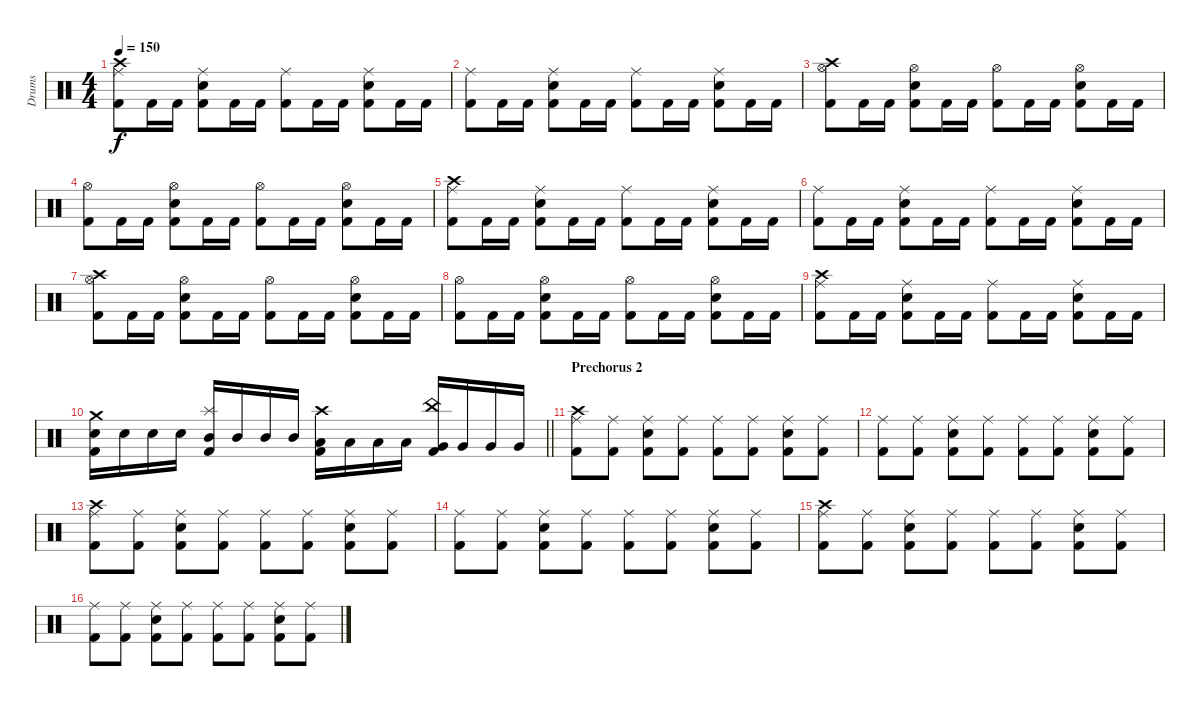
\track ("Drums" "Drums") {instrument percussion}
\staff {score}
\articulation defaults
\ts (4 4)
\tempo 150
\clef neutral
\ks c
("Crash high (hit)" "Ride (middle)" "Kick (hit) 2").8{dy f} "Kick (hit) 2".16 "Kick (hit) 2".16 ("Ride (middle)" "Snare (hit) 2" "Kick (hit) 2").8 "Kick (hit) 2".16 "Kick (hit) 2".16 ("Ride (middle)" "Kick (hit) 2").8 "Kick (hit) 2".16 "Kick (hit) 2".16 ("Ride (middle)" "Snare (hit) 2" "Kick (hit) 2").8 "Kick (hit) 2".16 "Kick (hit) 2".16 |
("Ride (middle)" "Kick (hit) 2").8 "Kick (hit) 2".16 "Kick (hit) 2".16 ("Ride (middle)" "Snare (hit) 2" "Kick (hit) 2").8 "Kick (hit) 2".16 "Kick (hit) 2".16 ("Ride (middle)" "Kick (hit) 2").8 "Kick (hit) 2".16 "Kick (hit) 2".16 ("Ride (middle)" "Snare (hit) 2" "Kick (hit) 2").8 "Kick (hit) 2".16 "Kick (hit) 2".16 |
("Crash high (hit)" "Hi-Hat (open)" "Kick (hit) 2").8 "Kick (hit) 2".16 "Kick (hit) 2".16 ("Hi-Hat (open)" "Snare (hit) 2" "Kick (hit) 2").8 "Kick (hit) 2".16 "Kick (hit) 2".16 ("Hi-Hat (open)" "Kick (hit) 2").8 "Kick (hit) 2".16 "Kick (hit) 2".16 ("Hi-Hat (open)" "Snare (hit) 2" "Kick (hit) 2").8 "Kick (hit) 2".16 "Kick (hit) 2".16 |
("Hi-Hat (open)" "Kick (hit) 2").8 "Kick (hit) 2".16 "Kick (hit) 2".16 ("Hi-Hat (open)" "Snare (hit) 2" "Kick (hit) 2").8 "Kick (hit) 2".16 "Kick (hit) 2".16 ("Hi-Hat (open)" "Kick (hit) 2").8 "Kick (hit) 2".16 "Kick (hit) 2".16 ("Hi-Hat (open)" "Snare (hit) 2" "Kick (hit) 2").8 "Kick (hit) 2".16 "Kick (hit) 2".16 |
("Crash high (hit)" "Ride (middle)" "Kick (hit) 2").8 "Kick (hit) 2".16 "Kick (hit) 2".16 ("Ride (middle)" "Snare (hit) 2" "Kick (hit) 2").8 "Kick (hit) 2".16 "Kick (hit) 2".16 ("Ride (middle)" "Kick (hit) 2").8 "Kick (hit) 2".16 "Kick (hit) 2".16 ("Ride (middle)" "Snare (hit) 2" "Kick (hit) 2").8 "Kick (hit) 2".16 "Kick (hit) 2".16 |
("Ride (middle)" "Kick (hit) 2").8 "Kick (hit) 2".16 "Kick (hit) 2".16 ("Ride (middle)" "Snare (hit) 2" "Kick (hit) 2").8 "Kick (hit) 2".16 "Kick (hit) 2".16 ("Ride (middle)" "Kick (hit) 2").8 "Kick (hit) 2".16 "Kick (hit) 2".16 ("Ride (middle)" "Snare (hit) 2" "Kick (hit) 2").8 "Kick (hit) 2".16 "Kick (hit) 2".16 |
("Crash high (hit)" "Hi-Hat (open)" "Kick (hit) 2").8 "Kick (hit) 2".16 "Kick (hit) 2".16 ("Hi-Hat (open)" "Snare (hit) 2" "Kick (hit) 2").8 "Kick (hit) 2".16 "Kick (hit) 2".16 ("Hi-Hat (open)" "Kick (hit) 2").8 "Kick (hit) 2".16 "Kick (hit) 2".16 ("Hi-Hat (open)" "Snare (hit) 2" "Kick (hit) 2").8 "Kick (hit) 2".16 "Kick (hit) 2".16 |
("Hi-Hat (open)" "Kick (hit) 2").8 "Kick (hit) 2".16 "Kick (hit) 2".16 ("Hi-Hat (open)" "Snare (hit) 2" "Kick (hit) 2").8 "Kick (hit) 2".16 "Kick (hit) 2".16 ("Hi-Hat (open)" "Kick (hit) 2").8 "Kick (hit) 2".16 "Kick (hit) 2".16 ("Hi-Hat (open)" "Snare (hit) 2" "Kick (hit) 2").8 "Kick (hit) 2".16 "Kick (hit) 2".16 |
("Crash high (hit)" "Ride (middle)" "Kick (hit) 2").8 "Kick (hit) 2".16 "Kick (hit) 2".16 ("Ride (middle)" "Snare (hit) 2" "Kick (hit) 2").8 "Kick (hit) 2".16 "Kick (hit) 2".16 ("Ride (middle)" "Kick (hit) 2").8 "Kick (hit) 2".16 "Kick (hit) 2".16 ("Ride (middle)" "Snare (hit) 2" "Kick (hit) 2").8 "Kick (hit) 2".16 "Kick (hit) 2".16 |
\barLineRight lightlight
("Crash medium (hit)" "Snare (hit) 2" "Kick (hit) 2").16 "Snare (hit) 2".16 "Snare (hit) 2".16 "Snare (hit) 2".16 ("Splash (hit)" "Mid Tom (hit)" "Kick (hit) 2").16 "Mid Tom (hit)".16 "Mid Tom (hit)".16 "Mid Tom (hit)".16 ("Crash high (hit)" "Low Tom (hit)" "Kick (hit) 2").16 "Low Tom (hit)".16 "Low Tom (hit)".16 "Low Tom (hit)".16 ("China (hit)" "Very Low Tom (hit)" "Kick (hit) 2").16 "Very Low Tom (hit)".16 "Very Low Tom (hit)".16 "Very Low Tom (hit)".16 |
\section ("" "Prechorus 2")
("Crash high (hit)" "Ride (middle)" "Kick (hit) 2").8 ("Ride (middle)" "Kick (hit) 2").8 ("Ride (middle)" "Snare (hit) 2" "Kick (hit) 2").8 ("Ride (middle)" "Kick (hit) 2").8 ("Ride (middle)" "Kick (hit) 2").8 ("Ride (middle)" "Kick (hit) 2").8 ("Ride (middle)" "Snare (hit) 2" "Kick (hit) 2").8 ("Ride (middle)" "Kick (hit) 2").8 |
("Ride (middle)" "Kick (hit) 2").8 ("Ride (middle)" "Kick (hit) 2").8 ("Ride (middle)" "Snare (hit) 2" "Kick (hit) 2").8 ("Ride (middle)" "Kick (hit) 2").8 ("Ride (middle)" "Kick (hit) 2").8 ("Ride (middle)" "Kick (hit) 2").8 ("Ride (middle)" "Snare (hit) 2" "Kick (hit) 2").8 ("Ride (middle)" "Kick (hit) 2").8 |
("Crash high (hit)" "Ride (middle)" "Kick (hit) 2").8 ("Ride (middle)" "Kick (hit) 2").8 ("Ride (middle)" "Snare (hit) 2" "Kick (hit) 2").8 ("Ride (middle)" "Kick (hit) 2").8 ("Ride (middle)" "Kick (hit) 2").8 ("Ride (middle)" "Kick (hit) 2").8 ("Ride (middle)" "Snare (hit) 2" "Kick (hit) 2").8 ("Ride (middle)" "Kick (hit) 2").8 |
("Ride (middle)" "Kick (hit) 2").8 ("Ride (middle)" "Kick (hit) 2").8 ("Ride (middle)" "Snare (hit) 2" "Kick (hit) 2").8 ("Ride (middle)" "Kick (hit) 2").8 ("Ride (middle)" "Kick (hit) 2").8 ("Ride (middle)" "Kick (hit) 2").8 ("Ride (middle)" "Snare (hit) 2" "Kick (hit) 2").8 ("Ride (middle)" "Kick (hit) 2").8 |
("Crash high (hit)" "Ride (middle)" "Kick (hit) 2").8 ("Ride (middle)" "Kick (hit) 2").8 ("Ride (middle)" "Snare (hit) 2" "Kick (hit) 2").8 ("Ride (middle)" "Kick (hit) 2").8 ("Ride (middle)" "Kick (hit) 2").8 ("Ride (middle)" "Kick (hit) 2").8 ("Ride (middle)" "Snare (hit) 2" "Kick (hit) 2").8 ("Ride (middle)" "Kick (hit) 2").8 |
("Ride (middle)" "Kick (hit) 2").8 ("Ride (middle)" "Kick (hit) 2").8 ("Ride (middle)" "Snare (hit) 2" "Kick (hit) 2").8 ("Ride (middle)" "Kick (hit) 2").8 ("Ride (middle)" "Kick (hit) 2").8 ("Ride (middle)" "Kick (hit) 2").8 ("Ride (middle)" "Snare (hit) 2" "Kick (hit) 2").8 ("Ride (middle)" "Kick (hit) 2").8
